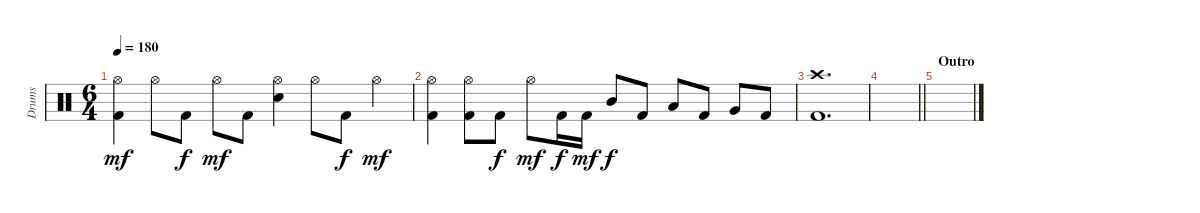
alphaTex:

\track ("Drums" "Drums") {instrument percussion}
\staff {score}
\articulation defaults
\ts (6 4)
\tempo 180
\clef neutral
\ks c
("Hi-Hat (open)" "Kick (hit) 2").4{dy mf} "Hi-Hat (open)".8 "Kick (hit) 2".8{dy f} "Hi-Hat (open)".8{dy mf} "Kick (hit) 2".8 ("Hi-Hat (open)" "Snare (hit) 2").4 "Hi-Hat (open)".8 "Kick (hit) 2".8{dy f} "Hi-Hat (open)".4{dy mf} |
("Hi-Hat (open)" "Kick (hit) 2").4 ("Hi-Hat (open)" "Kick (hit) 2").8 "Kick (hit) 2".8{dy f} "Hi-Hat (open)".8{dy mf} "Kick (hit) 2".16{dy f} "Kick (hit) 2".16{dy mf} "Mid Tom (hit)".8{dy f} "Kick (hit) 2".8 "Low Tom (hit)".8 "Kick (hit) 2".8 "Very Low Tom (hit)".8 "Kick (hit) 2".8 |
("Crash high (hit)" "Kick (hit) 2").1{d} |
\barLineRight lightlight
|
\section ("" "Outro")
